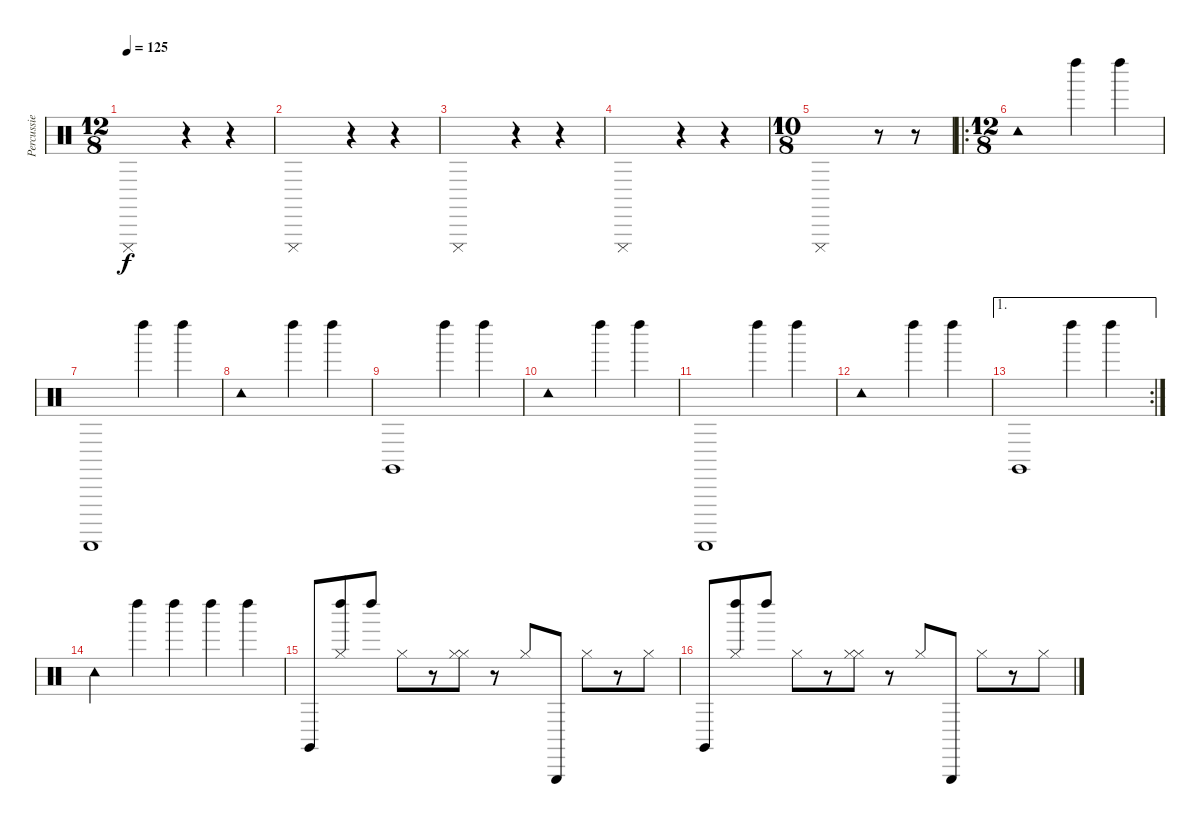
\track ("Percussie" "Percussie") {instrument percussion}
\staff {score}
\articulation defaults
\ts (12 8)
\tempo 125
\clef neutral
\ks c "Cuica (mute)".1{dy f}
r.4 r.4 |
"Cuica (mute)".1 r.4 r.4 |
"Cuica (mute)".1 r.4 r.4 |
"Cuica (mute)".1 r.4 r.4 |
\ts (10 8)
"Cuica (mute)".1 r.8 r.8 |
\ro
\ts (12 8)
"Tambourine (hit)".1 "Left Maraca (hit)".4 "Left Maraca (hit)".4 |
"Guiro (scrap-return)".1 "Left Maraca (hit)".4 "Left Maraca (hit)".4 |
"Tambourine (hit)".1 "Left Maraca (hit)".4 "Left Maraca (hit)".4 |
"Claves (hit)".1 "Left Maraca (hit)".4 "Left Maraca (hit)".4 |
"Tambourine (hit)".1 "Left Maraca (hit)".4 "Left Maraca (hit)".4 |
"Guiro (scrap-return)".1 "Left Maraca (hit)".4 "Left Maraca (hit)".4 |
"Tambourine (hit)".1 "Left Maraca (hit)".4 "Left Maraca (hit)".4 |
\ae 1
\rc 2 "Claves (hit)".1 "Left Maraca (hit)".4 "Left Maraca (hit)".4
|
"Tambourine (hit)".2 "Left Maraca (hit)".4 "Left Maraca (hit)".4 "Left Maraca (hit)".4 "Left Maraca (hit)".4 |
"Claves (hit)".8 ("Left Maraca (hit)" "Hi-Hat (closed)").8 "Left Maraca (hit)".8 "Hi-Hat (closed)".8 r.8 ("Hi-Hat (closed)" "Hi-Hat (closed)").8 r.8 "Hi-Hat (closed)".8 "Triangle (hit)".8 "Hi-Hat (closed)".8 r.8 "Hi-Hat (closed)".8 |
"Claves (hit)".8 ("Left Maraca (hit)" "Hi-Hat (closed)").8 "Left Maraca (hit)".8 "Hi-Hat (closed)".8 r.8 ("Hi-Hat (closed)" "Hi-Hat (closed)").8 r.8 "Hi-Hat (closed)".8 "Triangle (hit)".8 "Hi-Hat (closed)".8 r.8 "Hi-Hat (closed)".8
